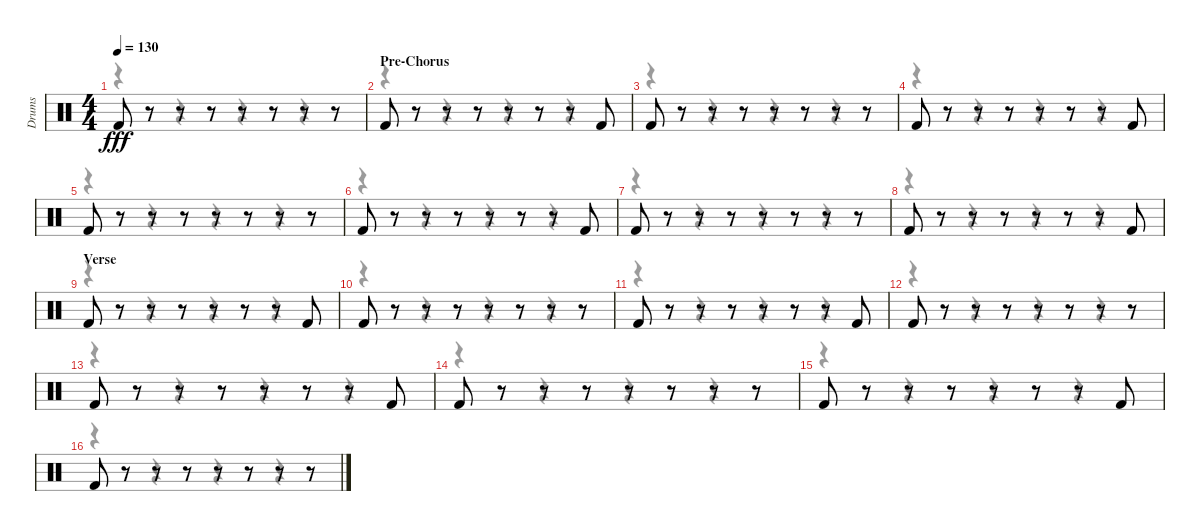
\track ("Drums" "Drums") {instrument percussion}
\staff {score}
\articulation defaults
\voice
\ts (4 4)
\tempo 130
\clef neutral
\ks c "Kick (hit) 2".8{dy fff}
r.8 r.8 r.8 r.8 r.8 r.8 r.8 |
\section ("" "Pre-Chorus")
"Kick (hit) 2".8 r.8 r.8 r.8 r.8 r.8 r.8 "Kick (hit) 2".8 |
"Kick (hit) 2".8 r.8 r.8 r.8 r.8 r.8 r.8 r.8 |
"Kick (hit) 2".8 r.8 r.8 r.8 r.8 r.8 r.8 "Kick (hit) 2".8 |
"Kick (hit) 2".8 r.8 r.8 r.8 r.8 r.8 r.8 r.8 |
"Kick (hit) 2".8 r.8 r.8 r.8 r.8 r.8 r.8 "Kick (hit) 2".8 |
"Kick (hit) 2".8 r.8 r.8 r.8 r.8 r.8 r.8 r.8 |
"Kick (hit) 2".8 r.8 r.8 r.8 r.8 r.8 r.8 "Kick (hit) 2".8 |
\section ("" "Verse")
"Kick (hit) 2".8 r.8 r.8 r.8 r.8 r.8 r.8 "Kick (hit) 2".8 |
"Kick (hit) 2".8 r.8 r.8 r.8 r.8 r.8 r.8 r.8 |
"Kick (hit) 2".8 r.8 r.8 r.8 r.8 r.8 r.8 "Kick (hit) 2".8 |
"Kick (hit) 2".8 r.8 r.8 r.8 r.8 r.8 r.8 r.8 |
"Kick (hit) 2".8 r.8 r.8 r.8 r.8 r.8 r.8 "Kick (hit) 2".8 |
"Kick (hit) 2".8 r.8 r.8 r.8 r.8 r.8 r.8 r.8 |
"Kick (hit) 2".8 r.8 r.8 r.8 r.8 r.8 r.8 "Kick (hit) 2".8 |
"Kick (hit) 2".8 r.8 r.8 r.8 r.8 r.8 r.8 r.8
\voice
\clef neutral
\ottava regular
\simile none
\ks c
r.4{dy f} r.4 r.4 r.4 |
r.4 r.4 r.4 r.4 |
r.4 r.4 r.4 r.4 |
r.4 r.4 r.4 r.4 |
r.4 r.4 r.4 r.4 |
r.4 r.4 r.4 r.4 |
r.4 r.4 r.4 r.4 |
r.4 r.4 r.4 r.4 |
r.4 r.4 r.4 r.4 |
r.4 r.4 r.4 r.4 |
r.4 r.4 r.4 r.4 |
r.4 r.4 r.4 r.4 |
r.4 r.4 r.4 r.4 |
r.4 r.4 r.4 r.4 |
r.4 r.4 r.4 r.4 |
r.4 r.4 r.4 r.4
